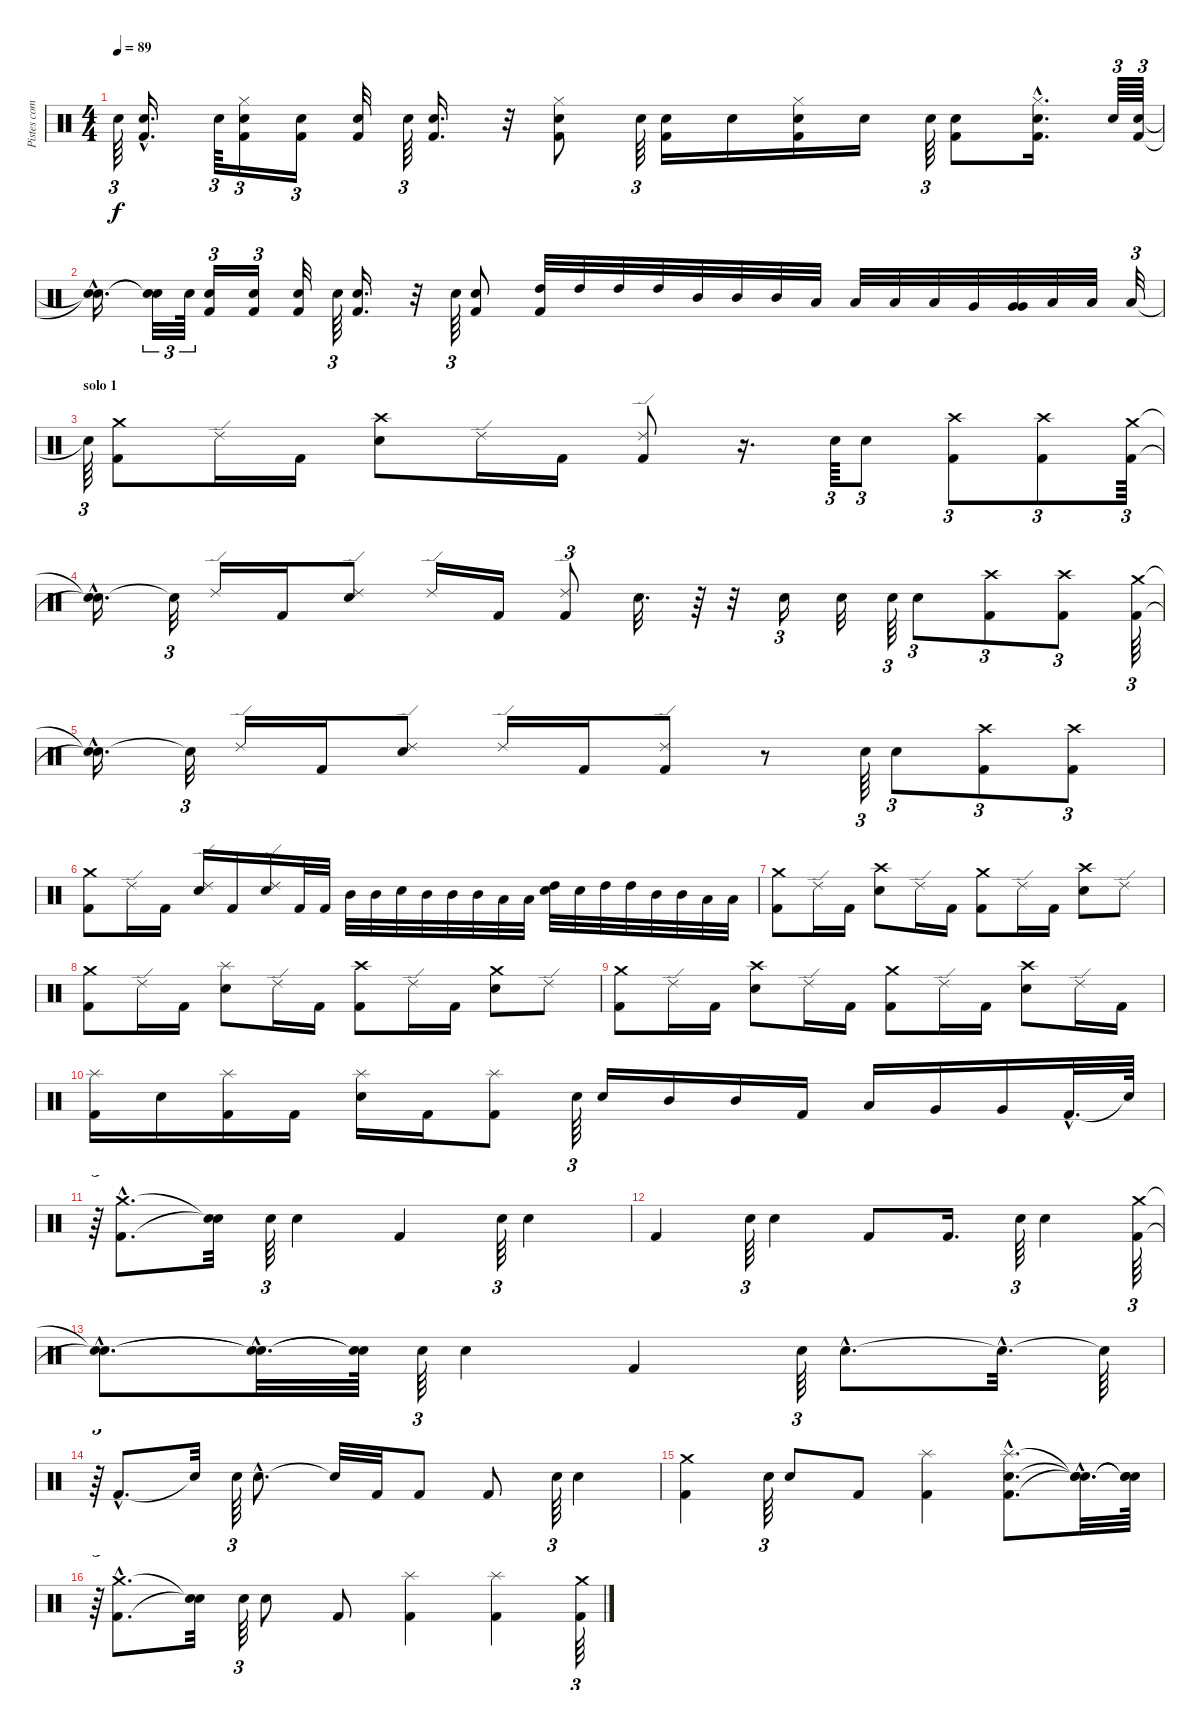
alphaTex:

\track ("Pistes combinées" "Pistes com") {instrument percussion}
\staff {score}
\articulation defaults
\ts (4 4)
\tempo 89
\clef neutral
\ks c "Electric Snare (hit)".64{tu (3 2) dy f}
("Kick (hit) 2"{hac} "Electric Snare (hit)"{hac}).16{d} "Electric Snare (hit)".64{tu (3 2)} ("Hi-Hat (closed)" "Kick (hit) 2" "Electric Snare (hit)").16{tu (3 2)} ("Kick (hit) 2" "Electric Snare (hit)").16{tu (3 2)} ("Kick (hit) 2" "Electric Snare (hit)").32 "Electric Snare (hit)".64{tu (3 2)} ("Kick (hit) 2" "Electric Snare (hit)").16{d} r.32 ("Hi-Hat (closed)" "Kick (hit) 2" "Electric Snare (hit)").8 "Electric Snare (hit)".64{tu (3 2)} ("Kick (hit) 2" "Electric Snare (hit)").16 "Electric Snare (hit)".16 ("Hi-Hat (closed)" "Kick (hit) 2" "Electric Snare (hit)").16 "Electric Snare (hit)".16 "Electric Snare (hit)".64{tu (3 2)} ("Kick (hit) 2" "Electric Snare (hit)").8 ("Hi-Hat (closed)" "Kick (hit) 2" "Electric Snare (hit)"{hac}).16{d} "Electric Snare (hit)".64{tu (3 2)} ("Kick (hit) 2" "Electric Snare (hit)").64{tu (3 2)} |
("Snare (hit)"{hac t} "Snare (hit)"{hac t}).16{d} ("Snare (hit)"{t} "Snare (hit)"{t}).32{tu (3 2)} "Electric Snare (hit)".64{tu (3 2)} ("Kick (hit) 2" "Electric Snare (hit)").16{tu (3 2)} ("Kick (hit) 2" "Electric Snare (hit)").16{tu (3 2)} ("Kick (hit) 2" "Electric Snare (hit)").32 "Electric Snare (hit)".64{tu (3 2)} ("Kick (hit) 2" "Electric Snare (hit)").16{d} r.32 "Electric Snare (hit)".64{tu (3 2)} ("Kick (hit) 2" "Electric Snare (hit)").8 ("Kick (hit) 2" "High Tom (hit)").32 "High Tom (hit)".32 "High Tom (hit)".32 "High Tom (hit)".32 "Mid Tom (hit)".32 "Mid Tom (hit)".32 "Mid Tom (hit)".32 "Low Tom (hit)".32 "Low Tom (hit)".32 "Low Tom (hit)".32 "Low Tom (hit)".32 "Very Low Tom (hit)".32 ("Very Low Tom (hit)" "Very Low Tom (hit)").32 "Low Floor Tom (hit)".32 "Low Floor Tom (hit)".32 "Low Floor Tom (hit)".32{tu (3 2)} |
\section ("" "solo 1")
"Snare (hit)"{t}.64{tu (3 2)} ("Crash medium (hit)" "Kick (hit) 2").8 "Ride (edge) 2".16 "Kick (hit) 2".16 ("Crash high (hit)" "Electric Snare (hit)").8 "Ride (edge) 2".16 "Kick (hit) 2".16 ("Ride (edge) 2" "Kick (hit) 2").8 r.16{d} "Electric Snare (hit)".64{tu (3 2)} "Electric Snare (hit)".8{tu (3 2)} ("Crash high (hit)" "Kick (hit) 2").8{tu (3 2)} ("Crash high (hit)" "Kick (hit) 2").8{tu (3 2)} ("Crash medium (hit)" "Kick (hit) 2").64{tu (3 2)} |
("Snare (hit)"{hac t} "Snare (hit)"{hac t}).16{d} "Snare (hit)"{t}.32{tu (3 2)} "Ride (edge) 2".16 "Kick (hit) 2".16 ("Ride (edge) 2" "Electric Snare (hit)").8 "Ride (edge) 2".16 "Kick (hit) 2".16 ("Ride (edge) 2" "Kick (hit) 2").8{tu (3 2)} "Electric Snare (hit)".32{d} r.64 r.32 "Electric Snare (hit)".16{tu (3 2)} "Electric Snare (hit)".32 "Electric Snare (hit)".64{tu (3 2)} "Electric Snare (hit)".8{tu (3 2)} ("Crash high (hit)" "Kick (hit) 2").8{tu (3 2)} ("Crash high (hit)" "Kick (hit) 2").8{tu (3 2)} ("Crash medium (hit)" "Kick (hit) 2").64{tu (3 2)} |
("Snare (hit)"{hac t} "Snare (hit)"{hac t}).16{d} "Snare (hit)"{t}.32{tu (3 2)} "Ride (edge) 2".16 "Kick (hit) 2".16 ("Ride (edge) 2" "Electric Snare (hit)").8 "Ride (edge) 2".16 "Kick (hit) 2".16 ("Ride (edge) 2" "Kick (hit) 2").8 r.8 "Electric Snare (hit)".64{tu (3 2)} "Electric Snare (hit)".8{tu (3 2)} ("Crash high (hit)" "Kick (hit) 2").8{tu (3 2)} ("Crash high (hit)" "Kick (hit) 2").8{tu (3 2)} |
("Crash medium (hit)" "Kick (hit) 2").8 "Ride (edge) 2".16 "Kick (hit) 2".16 ("Ride (edge) 2" "Electric Snare (hit)").16 "Kick (hit) 2".16 ("Ride (edge) 2" "Electric Snare (hit)").16 "Kick (hit) 2".32 "Kick (hit) 2".32 "Mid Tom (hit)".32 "Mid Tom (hit)".32 "Electric Snare (hit)".32 "Mid Tom (hit)".32 "Mid Tom (hit)".32 "Mid Tom (hit)".32 "Low Tom (hit)".32 "Low Tom (hit)".32 ("High Tom (hit)" "Electric Snare (hit)").32 "Electric Snare (hit)".32 "High Tom (hit)".32 "High Tom (hit)".32 "Mid Tom (hit)".32 "Mid Tom (hit)".32 "Low Tom (hit)".32 "Low Tom (hit)".32 |
("Crash medium (hit)" "Kick (hit) 2").8 "Ride (edge) 2".16 "Kick (hit) 2".16 ("Crash high (hit)" "Electric Snare (hit)").8 "Ride (edge) 2".16 "Kick (hit) 2".16 ("Crash medium (hit)" "Kick (hit) 2").8 "Ride (edge) 2".16 "Kick (hit) 2".16 ("Crash high (hit)" "Electric Snare (hit)").8 "Ride (edge) 2".8 |
("Crash medium (hit)" "Kick (hit) 2").8 "Ride (edge) 2".16 "Kick (hit) 2".16 ("Splash (hit)" "Electric Snare (hit)").8 "Ride (edge) 2".16 "Kick (hit) 2".16 ("Crash high (hit)" "Kick (hit) 2").8 "Ride (edge) 2".16 "Kick (hit) 2".16 ("Crash medium (hit)" "Electric Snare (hit)").8 "Ride (edge) 2".8 |
("Crash medium (hit)" "Kick (hit) 2").8 "Ride (edge) 2".16 "Kick (hit) 2".16 ("Crash high (hit)" "Electric Snare (hit)").8 "Ride (edge) 2".16 "Kick (hit) 2".16 ("Crash medium (hit)" "Kick (hit) 2").8 "Ride (edge) 2".16 "Kick (hit) 2".16 ("Crash high (hit)" "Electric Snare (hit)").8 "Ride (edge) 2".16 "Kick (hit) 2".16 |
("Splash (hit)" "Kick (hit) 2").16 "Electric Snare (hit)".16 ("Splash (hit)" "Kick (hit) 2").16 "Kick (hit) 2".16 ("Splash (hit)" "Electric Snare (hit)").16 "Kick (hit) 2".16 ("Splash (hit)" "Kick (hit) 2").8 "Electric Snare (hit)".64{tu (3 2)} "Electric Snare (hit)".16 "Mid Tom (hit)".16 "Mid Tom (hit)".16 "Kick (hit) 2".16 "Low Tom (hit)".16 "Very Low Tom (hit)".16 "Very Low Tom (hit)".16 "Kick (hit) 2"{hac}.32{d} "Snare (hit)"{t}.64 |
r.64{tu (3 2)} ("Crash medium (hit)"{hac} "Kick (hit) 2"{hac}).8{d} ("Snare (hit)"{t} "Snare (hit)"{t}).32 "Electric Snare (hit)".64{tu (3 2)} "Electric Snare (hit)".4 "Kick (hit) 2".4 "Electric Snare (hit)".64{tu (3 2)} "Electric Snare (hit)".4 |
"Kick (hit) 2".4 "Electric Snare (hit)".64{tu (3 2)} "Electric Snare (hit)".4 "Kick (hit) 2".8 "Kick (hit) 2".16{d} "Electric Snare (hit)".64{tu (3 2)} "Electric Snare (hit)".4 ("Crash medium (hit)" "Kick (hit) 2").64{tu (3 2)} |
("Snare (hit)"{hac t} "Snare (hit)"{hac t}).8{d} ("Snare (hit)"{hac t} "Snare (hit)"{hac t}).32{d} ("Snare (hit)"{t} "Snare (hit)"{t}).64 "Electric Snare (hit)".64{tu (3 2)} "Electric Snare (hit)".4 "Kick (hit) 2".4 "Electric Snare (hit)".64{tu (3 2)} "Electric Snare (hit)"{hac}.8{d} "Snare (hit)"{hac t}.32{d} "Snare (hit)"{t}.64 |
r.64{tu (3 2)} "Kick (hit) 2"{hac}.8{d} "Snare (hit)"{t}.32 "Electric Snare (hit)".64{tu (3 2)} "Electric Snare (hit)"{hac}.8{d} "Snare (hit)"{t}.32 "Kick (hit) 2".32 "Kick (hit) 2".8 "Kick (hit) 2".8 "Electric Snare (hit)".64{tu (3 2)} "Electric Snare (hit)".4 |
("Crash medium (hit)" "Kick (hit) 2").4 "Electric Snare (hit)".64{tu (3 2)} "Electric Snare (hit)".8 "Kick (hit) 2".8 ("Splash (hit)" "Kick (hit) 2").4 ("Splash (hit)"{hac} "Kick (hit) 2"{hac} "Electric Snare (hit)"{hac}).8{d} ("Snare (hit)"{hac t} "Snare (hit)"{hac t} "Snare (hit)"{hac t}).32{d} ("Snare (hit)"{t} "Snare (hit)"{t} "Snare (hit)"{t}).64 |
r.64{tu (3 2)} ("Crash medium (hit)"{hac} "Kick (hit) 2"{hac}).8{d} ("Snare (hit)"{t} "Snare (hit)"{t}).32 "Electric Snare (hit)".64{tu (3 2)} "Electric Snare (hit)".8 "Kick (hit) 2".8 ("Splash (hit)" "Kick (hit) 2").4 ("Splash (hit)" "Kick (hit) 2").4 ("Crash medium (hit)" "Kick (hit) 2").64{tu (3 2)}
